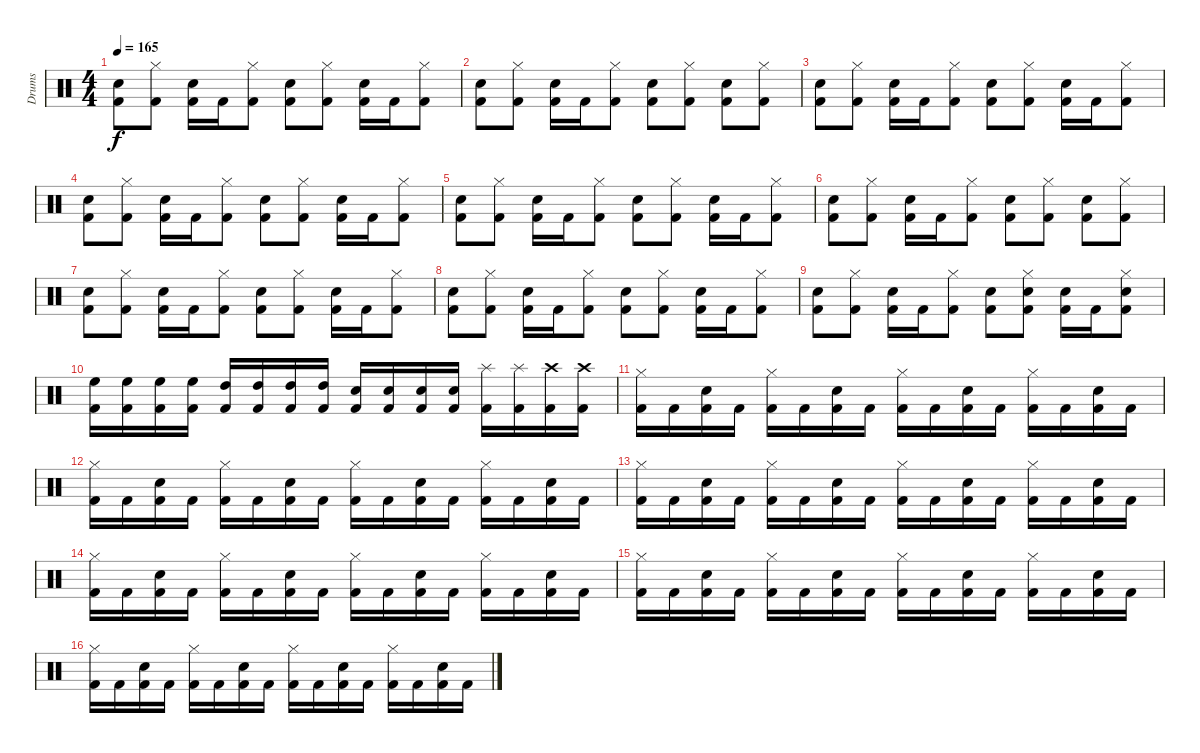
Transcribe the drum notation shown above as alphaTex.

\track ("Drums" "Drums") {instrument percussion}
\staff {score}
\articulation defaults
\ts (4 4)
\tempo 165
\clef neutral
\ks c
("Snare (hit) 2" "Kick (hit) 2").8{dy f} ("Hi-Hat (closed)" "Kick (hit) 2").8 ("Snare (hit) 2" "Kick (hit) 2").16 "Kick (hit) 2".16 ("Hi-Hat (closed)" "Kick (hit) 2").8 ("Snare (hit) 2" "Kick (hit) 2").8 ("Hi-Hat (closed)" "Kick (hit) 2").8 ("Snare (hit) 2" "Kick (hit) 2").16 "Kick (hit) 2".16 ("Hi-Hat (closed)" "Kick (hit) 2").8 |
("Snare (hit) 2" "Kick (hit) 2").8 ("Hi-Hat (closed)" "Kick (hit) 2").8 ("Snare (hit) 2" "Kick (hit) 2").16 "Kick (hit) 2".16 ("Hi-Hat (closed)" "Kick (hit) 2").8 ("Snare (hit) 2" "Kick (hit) 2").8 ("Hi-Hat (closed)" "Kick (hit) 2").8 ("Snare (hit) 2" "Kick (hit) 2").8 ("Hi-Hat (closed)" "Kick (hit) 2").8 |
("Snare (hit) 2" "Kick (hit) 2").8 ("Hi-Hat (closed)" "Kick (hit) 2").8 ("Snare (hit) 2" "Kick (hit) 2").16 "Kick (hit) 2".16 ("Hi-Hat (closed)" "Kick (hit) 2").8 ("Snare (hit) 2" "Kick (hit) 2").8 ("Hi-Hat (closed)" "Kick (hit) 2").8 ("Snare (hit) 2" "Kick (hit) 2").16 "Kick (hit) 2".16 ("Hi-Hat (closed)" "Kick (hit) 2").8 |
("Snare (hit) 2" "Kick (hit) 2").8 ("Hi-Hat (closed)" "Kick (hit) 2").8 ("Snare (hit) 2" "Kick (hit) 2").16 "Kick (hit) 2".16 ("Hi-Hat (closed)" "Kick (hit) 2").8 ("Snare (hit) 2" "Kick (hit) 2").8 ("Hi-Hat (closed)" "Kick (hit) 2").8 ("Snare (hit) 2" "Kick (hit) 2").16 "Kick (hit) 2".16 ("Hi-Hat (closed)" "Kick (hit) 2").8 |
("Snare (hit) 2" "Kick (hit) 2").8 ("Hi-Hat (closed)" "Kick (hit) 2").8 ("Snare (hit) 2" "Kick (hit) 2").16 "Kick (hit) 2".16 ("Hi-Hat (closed)" "Kick (hit) 2").8 ("Snare (hit) 2" "Kick (hit) 2").8 ("Hi-Hat (closed)" "Kick (hit) 2").8 ("Snare (hit) 2" "Kick (hit) 2").16 "Kick (hit) 2".16 ("Hi-Hat (closed)" "Kick (hit) 2").8 |
("Snare (hit) 2" "Kick (hit) 2").8 ("Hi-Hat (closed)" "Kick (hit) 2").8 ("Snare (hit) 2" "Kick (hit) 2").16 "Kick (hit) 2".16 ("Hi-Hat (closed)" "Kick (hit) 2").8 ("Snare (hit) 2" "Kick (hit) 2").8 ("Hi-Hat (closed)" "Kick (hit) 2").8 ("Snare (hit) 2" "Kick (hit) 2").8 ("Hi-Hat (closed)" "Kick (hit) 2").8 |
("Snare (hit) 2" "Kick (hit) 2").8 ("Hi-Hat (closed)" "Kick (hit) 2").8 ("Snare (hit) 2" "Kick (hit) 2").16 "Kick (hit) 2".16 ("Hi-Hat (closed)" "Kick (hit) 2").8 ("Snare (hit) 2" "Kick (hit) 2").8 ("Hi-Hat (closed)" "Kick (hit) 2").8 ("Snare (hit) 2" "Kick (hit) 2").16 "Kick (hit) 2".16 ("Hi-Hat (closed)" "Kick (hit) 2").8 |
("Snare (hit) 2" "Kick (hit) 2").8 ("Hi-Hat (closed)" "Kick (hit) 2").8 ("Snare (hit) 2" "Kick (hit) 2").16 "Kick (hit) 2".16 ("Hi-Hat (closed)" "Kick (hit) 2").8 ("Snare (hit) 2" "Kick (hit) 2").8 ("Hi-Hat (closed)" "Kick (hit) 2").8 ("Snare (hit) 2" "Kick (hit) 2").16 "Kick (hit) 2".16 ("Hi-Hat (closed)" "Kick (hit) 2").8 |
("Snare (hit) 2" "Kick (hit) 2").8 ("Hi-Hat (closed)" "Kick (hit) 2").8 ("Snare (hit) 2" "Kick (hit) 2").16 "Kick (hit) 2".16 ("Hi-Hat (closed)" "Kick (hit) 2").8 ("Snare (hit) 2" "Kick (hit) 2").8 ("Hi-Hat (closed)" "Snare (hit) 2" "Kick (hit) 2").8 ("Snare (hit) 2" "Kick (hit) 2").16 "Kick (hit) 2".16 ("Hi-Hat (closed)" "Snare (hit) 2" "Kick (hit) 2").8 |
("High Floor Tom (hit)" "Kick (hit) 2").16 ("High Floor Tom (hit)" "Kick (hit) 2").16 ("High Floor Tom (hit)" "Kick (hit) 2").16 ("High Floor Tom (hit)" "Kick (hit) 2").16 ("High Tom (hit)" "Kick (hit) 2").16 ("High Tom (hit)" "Kick (hit) 2").16 ("High Tom (hit)" "Kick (hit) 2").16 ("High Tom (hit)" "Kick (hit) 2").16 ("Snare (hit) 2" "Kick (hit) 2").16 ("Snare (hit) 2" "Kick (hit) 2").16 ("Snare (hit) 2" "Kick (hit) 2").16 ("Snare (hit) 2" "Kick (hit) 2").16 ("Splash (hit)" "Kick (hit) 2").16 ("Splash (hit)" "Kick (hit) 2").16 ("Crash high (hit)" "Kick (hit) 2").16 ("Crash high (hit)" "Kick (hit) 2").16 |
("Hi-Hat (closed)" "Kick (hit) 2").16 "Kick (hit) 2".16 ("Snare (hit) 2" "Kick (hit) 2").16 "Kick (hit) 2".16 ("Hi-Hat (closed)" "Kick (hit) 2").16 "Kick (hit) 2".16 ("Snare (hit) 2" "Kick (hit) 2").16 "Kick (hit) 2".16 ("Hi-Hat (closed)" "Kick (hit) 2").16 "Kick (hit) 2".16 ("Snare (hit) 2" "Kick (hit) 2").16 "Kick (hit) 2".16 ("Hi-Hat (closed)" "Kick (hit) 2").16 "Kick (hit) 2".16 ("Snare (hit) 2" "Kick (hit) 2").16 "Kick (hit) 2".16 |
("Hi-Hat (closed)" "Kick (hit) 2").16 "Kick (hit) 2".16 ("Snare (hit) 2" "Kick (hit) 2").16 "Kick (hit) 2".16 ("Hi-Hat (closed)" "Kick (hit) 2").16 "Kick (hit) 2".16 ("Snare (hit) 2" "Kick (hit) 2").16 "Kick (hit) 2".16 ("Hi-Hat (closed)" "Kick (hit) 2").16 "Kick (hit) 2".16 ("Snare (hit) 2" "Kick (hit) 2").16 "Kick (hit) 2".16 ("Hi-Hat (closed)" "Kick (hit) 2").16 "Kick (hit) 2".16 ("Snare (hit) 2" "Kick (hit) 2").16 "Kick (hit) 2".16 |
("Hi-Hat (closed)" "Kick (hit) 2").16 "Kick (hit) 2".16 ("Snare (hit) 2" "Kick (hit) 2").16 "Kick (hit) 2".16 ("Hi-Hat (closed)" "Kick (hit) 2").16 "Kick (hit) 2".16 ("Snare (hit) 2" "Kick (hit) 2").16 "Kick (hit) 2".16 ("Hi-Hat (closed)" "Kick (hit) 2").16 "Kick (hit) 2".16 ("Snare (hit) 2" "Kick (hit) 2").16 "Kick (hit) 2".16 ("Hi-Hat (closed)" "Kick (hit) 2").16 "Kick (hit) 2".16 ("Snare (hit) 2" "Kick (hit) 2").16 "Kick (hit) 2".16 |
("Hi-Hat (closed)" "Kick (hit) 2").16 "Kick (hit) 2".16 ("Snare (hit) 2" "Kick (hit) 2").16 "Kick (hit) 2".16 ("Hi-Hat (closed)" "Kick (hit) 2").16 "Kick (hit) 2".16 ("Snare (hit) 2" "Kick (hit) 2").16 "Kick (hit) 2".16 ("Hi-Hat (closed)" "Kick (hit) 2").16 "Kick (hit) 2".16 ("Snare (hit) 2" "Kick (hit) 2").16 "Kick (hit) 2".16 ("Hi-Hat (closed)" "Kick (hit) 2").16 "Kick (hit) 2".16 ("Snare (hit) 2" "Kick (hit) 2").16 "Kick (hit) 2".16 |
("Hi-Hat (closed)" "Kick (hit) 2").16 "Kick (hit) 2".16 ("Snare (hit) 2" "Kick (hit) 2").16 "Kick (hit) 2".16 ("Hi-Hat (closed)" "Kick (hit) 2").16 "Kick (hit) 2".16 ("Snare (hit) 2" "Kick (hit) 2").16 "Kick (hit) 2".16 ("Hi-Hat (closed)" "Kick (hit) 2").16 "Kick (hit) 2".16 ("Snare (hit) 2" "Kick (hit) 2").16 "Kick (hit) 2".16 ("Hi-Hat (closed)" "Kick (hit) 2").16 "Kick (hit) 2".16 ("Snare (hit) 2" "Kick (hit) 2").16 "Kick (hit) 2".16 |
("Hi-Hat (closed)" "Kick (hit) 2").16 "Kick (hit) 2".16 ("Snare (hit) 2" "Kick (hit) 2").16 "Kick (hit) 2".16 ("Hi-Hat (closed)" "Kick (hit) 2").16 "Kick (hit) 2".16 ("Snare (hit) 2" "Kick (hit) 2").16 "Kick (hit) 2".16 ("Hi-Hat (closed)" "Kick (hit) 2").16 "Kick (hit) 2".16 ("Snare (hit) 2" "Kick (hit) 2").16 "Kick (hit) 2".16 ("Hi-Hat (closed)" "Kick (hit) 2").16 "Kick (hit) 2".16 ("Snare (hit) 2" "Kick (hit) 2").16 "Kick (hit) 2".16
